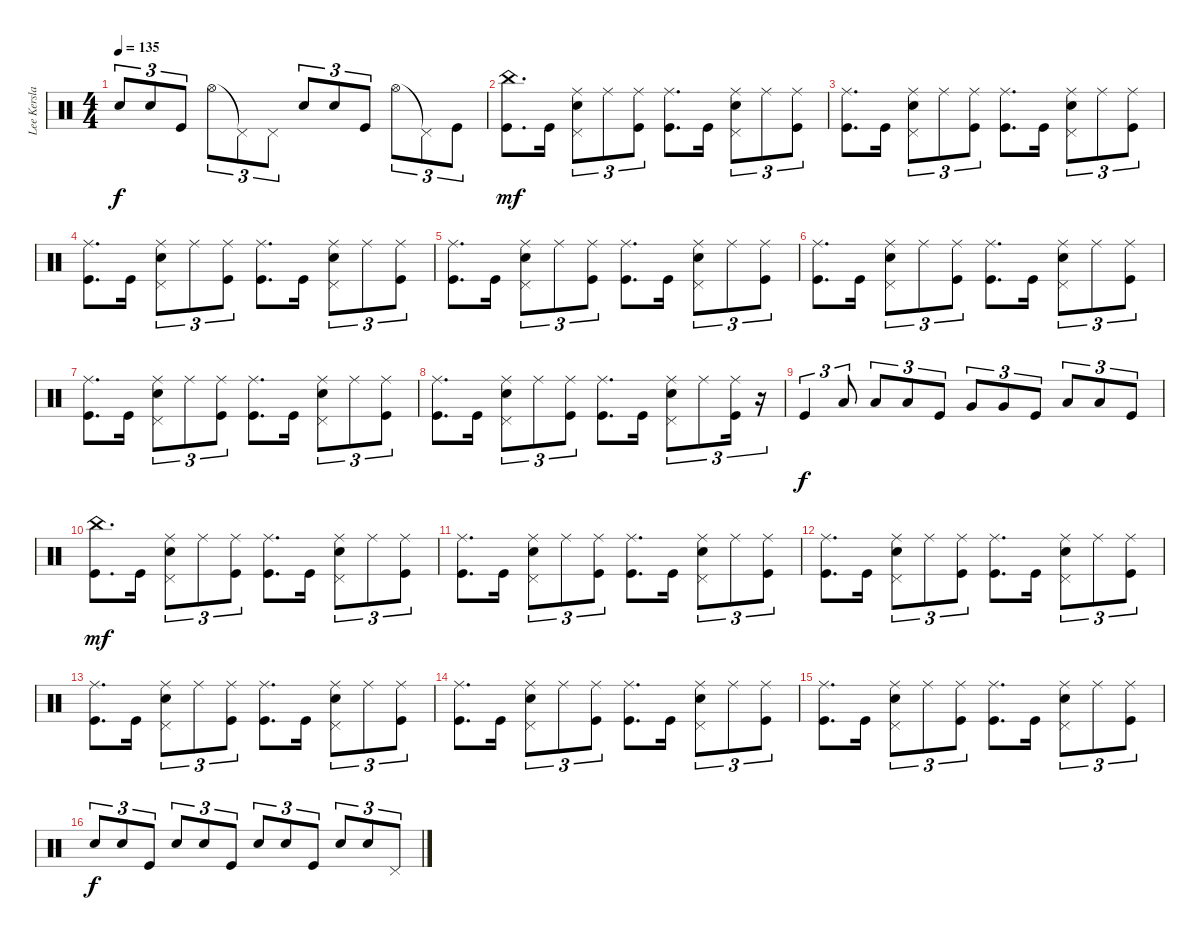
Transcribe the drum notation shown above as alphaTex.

\track ("Lee Kerslake (drums)" "Lee Kersla") {instrument percussion}
\staff {score}
\articulation defaults
\ts (4 4)
\tempo 135
\clef neutral
\ks c "Snare (hit) 2".8{tu (3 2) dy f} "Snare (hit) 2".8{tu (3 2)} "Kick (hit)".8{tu (3 2)} "Hi-Hat (open)".8{tu (3 2)} "Pedal Hi-Hat (hit)"{t}.8{tu (3 2)} "Pedal Hi-Hat (hit)".8{tu (3 2)} "Snare (hit) 2".8{tu (3 2)} "Snare (hit) 2".8{tu (3 2)} "Kick (hit)".8{tu (3 2)} "Hi-Hat (open)".8{tu (3 2)} "Pedal Hi-Hat (hit)"{t}.8{tu (3 2)} "Kick (hit)".8{tu (3 2)}
|
("China (hit)" "Kick (hit)").8{d dy mf} "Kick (hit)".16 ("Ride (middle)" "Pedal Hi-Hat (hit)" "Snare (hit) 2").8{tu (3 2)} "Ride (middle)".8{tu (3 2)} ("Ride (middle)" "Kick (hit)").8{tu (3 2)} ("Ride (middle)" "Kick (hit)").8{d} "Kick (hit)".16 ("Ride (middle)" "Pedal Hi-Hat (hit)" "Snare (hit) 2").8{tu (3 2)} "Ride (middle)".8{tu (3 2)} ("Ride (middle)" "Kick (hit)").8{tu (3 2)} |
("Ride (middle)" "Kick (hit)").8{d} "Kick (hit)".16 ("Ride (middle)" "Pedal Hi-Hat (hit)" "Snare (hit) 2").8{tu (3 2)} "Ride (middle)".8{tu (3 2)} ("Ride (middle)" "Kick (hit)").8{tu (3 2)} ("Ride (middle)" "Kick (hit)").8{d} "Kick (hit)".16 ("Ride (middle)" "Pedal Hi-Hat (hit)" "Snare (hit) 2").8{tu (3 2)} "Ride (middle)".8{tu (3 2)} ("Ride (middle)" "Kick (hit)").8{tu (3 2)} |
("Ride (middle)" "Kick (hit)").8{d} "Kick (hit)".16 ("Ride (middle)" "Pedal Hi-Hat (hit)" "Snare (hit) 2").8{tu (3 2)} "Ride (middle)".8{tu (3 2)} ("Ride (middle)" "Kick (hit)").8{tu (3 2)} ("Ride (middle)" "Kick (hit)").8{d} "Kick (hit)".16 ("Ride (middle)" "Pedal Hi-Hat (hit)" "Snare (hit) 2").8{tu (3 2)} "Ride (middle)".8{tu (3 2)} ("Ride (middle)" "Kick (hit)").8{tu (3 2)} |
("Ride (middle)" "Kick (hit)").8{d} "Kick (hit)".16 ("Ride (middle)" "Pedal Hi-Hat (hit)" "Snare (hit) 2").8{tu (3 2)} "Ride (middle)".8{tu (3 2)} ("Ride (middle)" "Kick (hit)").8{tu (3 2)} ("Ride (middle)" "Kick (hit)").8{d} "Kick (hit)".16 ("Ride (middle)" "Pedal Hi-Hat (hit)" "Snare (hit) 2").8{tu (3 2)} "Ride (middle)".8{tu (3 2)} ("Ride (middle)" "Kick (hit)").8{tu (3 2)} |
("Ride (middle)" "Kick (hit)").8{d} "Kick (hit)".16 ("Ride (middle)" "Pedal Hi-Hat (hit)" "Snare (hit) 2").8{tu (3 2)} "Ride (middle)".8{tu (3 2)} ("Ride (middle)" "Kick (hit)").8{tu (3 2)} ("Ride (middle)" "Kick (hit)").8{d} "Kick (hit)".16 ("Ride (middle)" "Pedal Hi-Hat (hit)" "Snare (hit) 2").8{tu (3 2)} "Ride (middle)".8{tu (3 2)} ("Ride (middle)" "Kick (hit)").8{tu (3 2)} |
("Ride (middle)" "Kick (hit)").8{d} "Kick (hit)".16 ("Ride (middle)" "Pedal Hi-Hat (hit)" "Snare (hit) 2").8{tu (3 2)} "Ride (middle)".8{tu (3 2)} ("Ride (middle)" "Kick (hit)").8{tu (3 2)} ("Ride (middle)" "Kick (hit)").8{d} "Kick (hit)".16 ("Ride (middle)" "Pedal Hi-Hat (hit)" "Snare (hit) 2").8{tu (3 2)} "Ride (middle)".8{tu (3 2)} ("Ride (middle)" "Kick (hit)").8{tu (3 2)} |
("Ride (middle)" "Kick (hit)").8{d} "Kick (hit)".16 ("Ride (middle)" "Pedal Hi-Hat (hit)" "Snare (hit) 2").8{tu (3 2)} "Ride (middle)".8{tu (3 2)} ("Ride (middle)" "Kick (hit)").8{tu (3 2)} ("Ride (middle)" "Kick (hit)").8{d} "Kick (hit)".16 ("Ride (middle)" "Pedal Hi-Hat (hit)" "Snare (hit) 2").8{tu (3 2)} "Ride (middle)".8{tu (3 2)} ("Ride (middle)" "Kick (hit)").16{tu (3 2)} r.16{tu (3 2)} |
"Kick (hit)".4{tu (3 2) dy f} "Low Tom (hit)".8{tu (3 2)} "Low Tom (hit)".8{tu (3 2)} "Low Tom (hit)".8{tu (3 2)} "Kick (hit)".8{tu (3 2)} "Very Low Tom (hit)".8{tu (3 2)} "Very Low Tom (hit)".8{tu (3 2)} "Kick (hit)".8{tu (3 2)} "Low Floor Tom (hit)".8{tu (3 2)} "Low Floor Tom (hit)".8{tu (3 2)} "Kick (hit)".8{tu (3 2)} |
("China (hit)" "Kick (hit)").8{d dy mf} "Kick (hit)".16 ("Ride (middle)" "Pedal Hi-Hat (hit)" "Snare (hit) 2").8{tu (3 2)} "Ride (middle)".8{tu (3 2)} ("Ride (middle)" "Kick (hit)").8{tu (3 2)} ("Ride (middle)" "Kick (hit)").8{d} "Kick (hit)".16 ("Ride (middle)" "Pedal Hi-Hat (hit)" "Snare (hit) 2").8{tu (3 2)} "Ride (middle)".8{tu (3 2)} ("Ride (middle)" "Kick (hit)").8{tu (3 2)} |
("Ride (middle)" "Kick (hit)").8{d} "Kick (hit)".16 ("Ride (middle)" "Pedal Hi-Hat (hit)" "Snare (hit) 2").8{tu (3 2)} "Ride (middle)".8{tu (3 2)} ("Ride (middle)" "Kick (hit)").8{tu (3 2)} ("Ride (middle)" "Kick (hit)").8{d} "Kick (hit)".16 ("Ride (middle)" "Pedal Hi-Hat (hit)" "Snare (hit) 2").8{tu (3 2)} "Ride (middle)".8{tu (3 2)} ("Ride (middle)" "Kick (hit)").8{tu (3 2)} |
("Ride (middle)" "Kick (hit)").8{d} "Kick (hit)".16 ("Ride (middle)" "Pedal Hi-Hat (hit)" "Snare (hit) 2").8{tu (3 2)} "Ride (middle)".8{tu (3 2)} ("Ride (middle)" "Kick (hit)").8{tu (3 2)} ("Ride (middle)" "Kick (hit)").8{d} "Kick (hit)".16 ("Ride (middle)" "Pedal Hi-Hat (hit)" "Snare (hit) 2").8{tu (3 2)} "Ride (middle)".8{tu (3 2)} ("Ride (middle)" "Kick (hit)").8{tu (3 2)} |
("Ride (middle)" "Kick (hit)").8{d} "Kick (hit)".16 ("Ride (middle)" "Pedal Hi-Hat (hit)" "Snare (hit) 2").8{tu (3 2)} "Ride (middle)".8{tu (3 2)} ("Ride (middle)" "Kick (hit)").8{tu (3 2)} ("Ride (middle)" "Kick (hit)").8{d} "Kick (hit)".16 ("Ride (middle)" "Pedal Hi-Hat (hit)" "Snare (hit) 2").8{tu (3 2)} "Ride (middle)".8{tu (3 2)} ("Ride (middle)" "Kick (hit)").8{tu (3 2)} |
("Ride (middle)" "Kick (hit)").8{d} "Kick (hit)".16 ("Ride (middle)" "Pedal Hi-Hat (hit)" "Snare (hit) 2").8{tu (3 2)} "Ride (middle)".8{tu (3 2)} ("Ride (middle)" "Kick (hit)").8{tu (3 2)} ("Ride (middle)" "Kick (hit)").8{d} "Kick (hit)".16 ("Ride (middle)" "Pedal Hi-Hat (hit)" "Snare (hit) 2").8{tu (3 2)} "Ride (middle)".8{tu (3 2)} ("Ride (middle)" "Kick (hit)").8{tu (3 2)} |
("Ride (middle)" "Kick (hit)").8{d} "Kick (hit)".16 ("Ride (middle)" "Pedal Hi-Hat (hit)" "Snare (hit) 2").8{tu (3 2)} "Ride (middle)".8{tu (3 2)} ("Ride (middle)" "Kick (hit)").8{tu (3 2)} ("Ride (middle)" "Kick (hit)").8{d} "Kick (hit)".16 ("Ride (middle)" "Pedal Hi-Hat (hit)" "Snare (hit) 2").8{tu (3 2)} "Ride (middle)".8{tu (3 2)} ("Ride (middle)" "Kick (hit)").8{tu (3 2)} |
"Snare (hit) 2".8{tu (3 2) dy f} "Snare (hit) 2".8{tu (3 2)} "Kick (hit)".8{tu (3 2)} "Snare (hit) 2".8{tu (3 2)} "Snare (hit) 2".8{tu (3 2)} "Kick (hit)".8{tu (3 2)} "Snare (hit) 2".8{tu (3 2)} "Snare (hit) 2".8{tu (3 2)} "Kick (hit)".8{tu (3 2)} "Snare (hit) 2".8{tu (3 2)} "Snare (hit) 2".8{tu (3 2)} "Pedal Hi-Hat (hit)".8{tu (3 2)}
